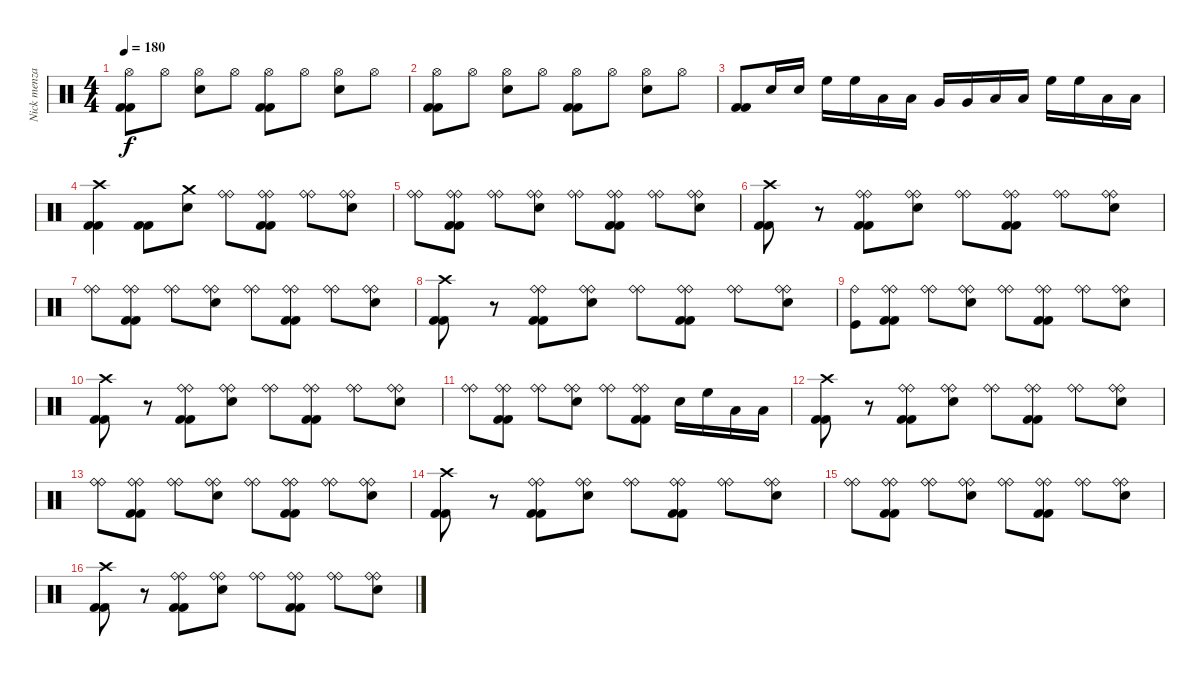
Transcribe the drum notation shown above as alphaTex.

\track ("Nick menza/Jimmy de grasso" "Nick menza") {instrument percussion}
\staff {score}
\articulation defaults
\ts (4 4)
\tempo 180
\clef neutral
\ks c
("Hi-Hat (open)" "Kick (hit) 2" "Kick (hit) 2").8{dy f} "Hi-Hat (open)".8 ("Hi-Hat (open)" "Electric Snare (hit)").8 "Hi-Hat (open)".8 ("Hi-Hat (open)" "Kick (hit) 2" "Kick (hit) 2").8 "Hi-Hat (open)".8 ("Hi-Hat (open)" "Electric Snare (hit)").8 "Hi-Hat (open)".8 |
("Hi-Hat (open)" "Kick (hit) 2" "Kick (hit) 2").8 "Hi-Hat (open)".8 ("Hi-Hat (open)" "Electric Snare (hit)").8 "Hi-Hat (open)".8 ("Hi-Hat (open)" "Kick (hit) 2" "Kick (hit) 2").8 "Hi-Hat (open)".8 ("Hi-Hat (open)" "Electric Snare (hit)").8 "Hi-Hat (open)".8 |
("Kick (hit) 2" "Kick (hit) 2").8 "Electric Snare (hit)".16 "Electric Snare (hit)".16 "High Floor Tom (hit)".16 "High Floor Tom (hit)".16 "Low Tom (hit)".16 "Low Tom (hit)".16 "Very Low Tom (hit)".16 "Very Low Tom (hit)".16 "Low Tom (hit)".16 "Low Tom (hit)".16 "High Floor Tom (hit)".16 "High Floor Tom (hit)".16 "Low Floor Tom (hit)".16 "Low Floor Tom (hit)".16 |
("Crash high (hit)" "Kick (hit) 2" "Kick (hit) 2").4 ("Kick (hit) 2" "Kick (hit) 2").8 ("Crash medium (hit)" "Electric Snare (hit)").8 ("Ride (bell)" "Ride (bell)").8 ("Ride (bell)" "Ride (bell)" "Kick (hit) 2" "Kick (hit) 2").8 ("Ride (bell)" "Ride (bell)").8 ("Ride (bell)" "Ride (bell)" "Electric Snare (hit)").8 |
("Ride (bell)" "Ride (bell)").8 ("Ride (bell)" "Ride (bell)" "Kick (hit) 2" "Kick (hit) 2").8 ("Ride (bell)" "Ride (bell)").8 ("Ride (bell)" "Ride (bell)" "Electric Snare (hit)").8 ("Ride (bell)" "Ride (bell)").8 ("Ride (bell)" "Ride (bell)" "Kick (hit) 2" "Kick (hit) 2").8 ("Ride (bell)" "Ride (bell)").8 ("Ride (bell)" "Ride (bell)" "Electric Snare (hit)").8 |
("Crash high (hit)" "Kick (hit) 2" "Kick (hit) 2").8 r.8 ("Ride (bell)" "Ride (bell)" "Kick (hit) 2" "Kick (hit) 2").8 ("Ride (bell)" "Ride (bell)" "Electric Snare (hit)").8 ("Ride (bell)" "Ride (bell)").8 ("Ride (bell)" "Ride (bell)" "Kick (hit) 2" "Kick (hit) 2").8 ("Ride (bell)" "Ride (bell)").8 ("Ride (bell)" "Ride (bell)" "Electric Snare (hit)").8 |
("Ride (bell)" "Ride (bell)").8 ("Ride (bell)" "Ride (bell)" "Kick (hit) 2" "Kick (hit) 2").8 ("Ride (bell)" "Ride (bell)").8 ("Ride (bell)" "Ride (bell)" "Electric Snare (hit)").8 ("Ride (bell)" "Ride (bell)").8 ("Ride (bell)" "Ride (bell)" "Kick (hit) 2" "Kick (hit) 2").8 ("Ride (bell)" "Ride (bell)").8 ("Ride (bell)" "Ride (bell)" "Electric Snare (hit)").8 |
("Crash high (hit)" "Kick (hit) 2" "Kick (hit) 2").8 r.8 ("Ride (bell)" "Ride (bell)" "Kick (hit) 2" "Kick (hit) 2").8 ("Ride (bell)" "Ride (bell)" "Electric Snare (hit)").8 ("Ride (bell)" "Ride (bell)").8 ("Ride (bell)" "Ride (bell)" "Kick (hit) 2" "Kick (hit) 2").8 ("Ride (bell)" "Ride (bell)").8 ("Ride (bell)" "Ride (bell)" "Electric Snare (hit)").8 |
("Kick (hit)" "Ride (bell)").8 ("Ride (bell)" "Ride (bell)" "Kick (hit) 2" "Kick (hit) 2").8 ("Ride (bell)" "Ride (bell)").8 ("Ride (bell)" "Ride (bell)" "Electric Snare (hit)").8 ("Ride (bell)" "Ride (bell)").8 ("Ride (bell)" "Ride (bell)" "Kick (hit) 2" "Kick (hit) 2").8 ("Ride (bell)" "Ride (bell)").8 ("Ride (bell)" "Ride (bell)" "Electric Snare (hit)").8 |
("Crash high (hit)" "Kick (hit) 2" "Kick (hit) 2").8 r.8 ("Ride (bell)" "Ride (bell)" "Kick (hit) 2" "Kick (hit) 2").8 ("Ride (bell)" "Ride (bell)" "Electric Snare (hit)").8 ("Ride (bell)" "Ride (bell)").8 ("Ride (bell)" "Ride (bell)" "Kick (hit) 2" "Kick (hit) 2").8 ("Ride (bell)" "Ride (bell)").8 ("Ride (bell)" "Ride (bell)" "Electric Snare (hit)").8 |
("Ride (bell)" "Ride (bell)").8 ("Ride (bell)" "Ride (bell)" "Kick (hit) 2" "Kick (hit) 2").8 ("Ride (bell)" "Ride (bell)").8 ("Ride (bell)" "Ride (bell)" "Electric Snare (hit)").8 ("Ride (bell)" "Ride (bell)").8 ("Ride (bell)" "Ride (bell)" "Kick (hit) 2" "Kick (hit) 2").8 "Electric Snare (hit)".16 "High Floor Tom (hit)".16 "Low Tom (hit)".16 "Low Floor Tom (hit)".16 |
("Crash high (hit)" "Kick (hit) 2" "Kick (hit) 2").8 r.8 ("Ride (bell)" "Ride (bell)" "Kick (hit) 2" "Kick (hit) 2").8 ("Ride (bell)" "Ride (bell)" "Electric Snare (hit)").8 ("Ride (bell)" "Ride (bell)").8 ("Ride (bell)" "Ride (bell)" "Kick (hit) 2" "Kick (hit) 2").8 ("Ride (bell)" "Ride (bell)").8 ("Ride (bell)" "Ride (bell)" "Electric Snare (hit)").8 |
("Ride (bell)" "Ride (bell)").8 ("Ride (bell)" "Ride (bell)" "Kick (hit) 2" "Kick (hit) 2").8 ("Ride (bell)" "Ride (bell)").8 ("Ride (bell)" "Ride (bell)" "Electric Snare (hit)").8 ("Ride (bell)" "Ride (bell)").8 ("Ride (bell)" "Ride (bell)" "Kick (hit) 2" "Kick (hit) 2").8 ("Ride (bell)" "Ride (bell)").8 ("Ride (bell)" "Ride (bell)" "Electric Snare (hit)").8 |
("Crash high (hit)" "Kick (hit) 2" "Kick (hit) 2").8 r.8 ("Ride (bell)" "Ride (bell)" "Kick (hit) 2" "Kick (hit) 2").8 ("Ride (bell)" "Ride (bell)" "Electric Snare (hit)").8 ("Ride (bell)" "Ride (bell)").8 ("Ride (bell)" "Ride (bell)" "Kick (hit) 2" "Kick (hit) 2").8 ("Ride (bell)" "Ride (bell)").8 ("Ride (bell)" "Ride (bell)" "Electric Snare (hit)").8 |
("Ride (bell)" "Ride (bell)").8 ("Ride (bell)" "Ride (bell)" "Kick (hit) 2" "Kick (hit) 2").8 ("Ride (bell)" "Ride (bell)").8 ("Ride (bell)" "Ride (bell)" "Electric Snare (hit)").8 ("Ride (bell)" "Ride (bell)").8 ("Ride (bell)" "Ride (bell)" "Kick (hit) 2" "Kick (hit) 2").8 ("Ride (bell)" "Ride (bell)").8 ("Ride (bell)" "Ride (bell)" "Electric Snare (hit)").8 |
("Crash high (hit)" "Kick (hit) 2" "Kick (hit) 2").8 r.8 ("Ride (bell)" "Ride (bell)" "Kick (hit) 2" "Kick (hit) 2").8 ("Ride (bell)" "Ride (bell)" "Electric Snare (hit)").8 ("Ride (bell)" "Ride (bell)").8 ("Ride (bell)" "Ride (bell)" "Kick (hit) 2" "Kick (hit) 2").8 ("Ride (bell)" "Ride (bell)").8 ("Ride (bell)" "Ride (bell)" "Electric Snare (hit)").8
